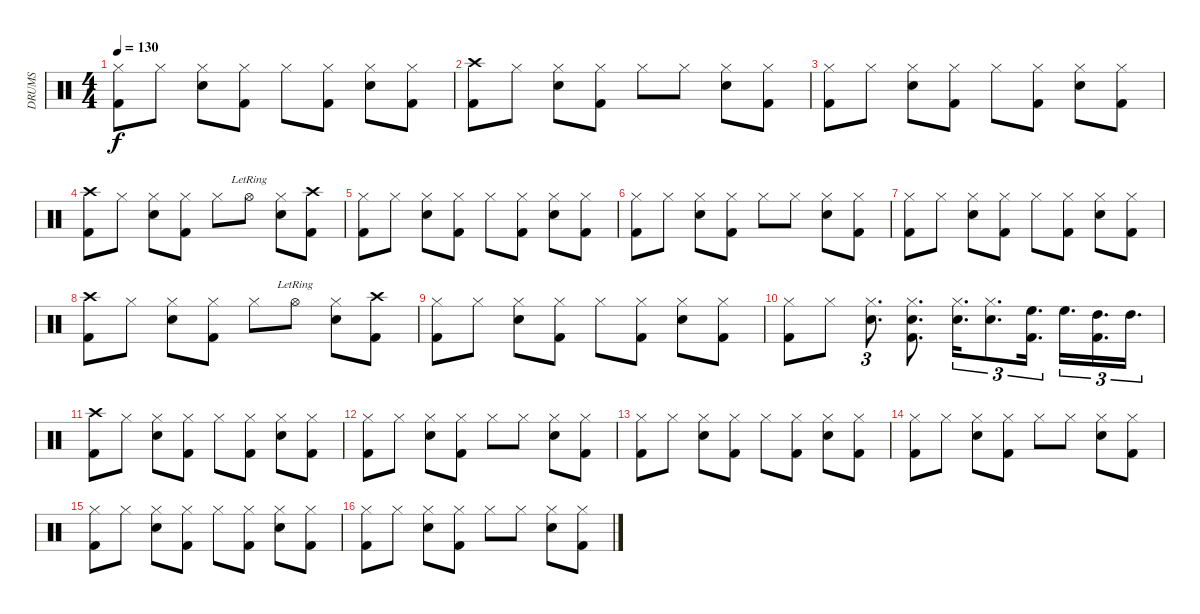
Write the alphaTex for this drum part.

\track ("DRUMS" "DRUMS") {instrument percussion}
\staff {score}
\articulation defaults
\ts (4 4)
\tempo 130
\clef neutral
\ks c
("Hi-Hat (closed)" "Kick (hit) 2").8{dy f} "Hi-Hat (closed)".8 ("Hi-Hat (closed)" "Snare (hit) 2").8 ("Hi-Hat (closed)" "Kick (hit) 2").8 "Hi-Hat (closed)".8 ("Hi-Hat (closed)" "Kick (hit) 2").8 ("Hi-Hat (closed)" "Snare (hit) 2").8 ("Hi-Hat (closed)" "Kick (hit) 2").8 |
("Crash high (hit)" "Kick (hit) 2").8 "Hi-Hat (closed)".8 ("Hi-Hat (closed)" "Snare (hit) 2").8 ("Hi-Hat (closed)" "Kick (hit) 2").8 "Hi-Hat (closed)".8 "Hi-Hat (closed)".8 ("Hi-Hat (closed)" "Snare (hit) 2").8 ("Hi-Hat (closed)" "Kick (hit) 2").8 |
("Hi-Hat (closed)" "Kick (hit) 2").8 "Hi-Hat (closed)".8 ("Hi-Hat (closed)" "Snare (hit) 2").8 ("Hi-Hat (closed)" "Kick (hit) 2").8 "Hi-Hat (closed)".8 ("Hi-Hat (closed)" "Kick (hit) 2").8 ("Hi-Hat (closed)" "Snare (hit) 2").8 ("Hi-Hat (closed)" "Kick (hit) 2").8 |
("Crash high (hit)" "Kick (hit) 2").8 "Hi-Hat (closed)".8 ("Hi-Hat (closed)" "Snare (hit) 2").8 ("Hi-Hat (closed)" "Kick (hit) 2").8 "Hi-Hat (closed)".8 "Hi-Hat (open)"{lr}.8 ("Hi-Hat (closed)" "Snare (hit) 2").8 ("Crash high (hit)" "Kick (hit) 2").8 |
("Hi-Hat (closed)" "Kick (hit) 2").8 "Hi-Hat (closed)".8 ("Hi-Hat (closed)" "Snare (hit) 2").8 ("Hi-Hat (closed)" "Kick (hit) 2").8 "Hi-Hat (closed)".8 ("Hi-Hat (closed)" "Kick (hit) 2").8 ("Hi-Hat (closed)" "Snare (hit) 2").8 ("Hi-Hat (closed)" "Kick (hit) 2").8 |
("Hi-Hat (closed)" "Kick (hit) 2").8 "Hi-Hat (closed)".8 ("Hi-Hat (closed)" "Snare (hit) 2").8 ("Hi-Hat (closed)" "Kick (hit) 2").8 "Hi-Hat (closed)".8 "Hi-Hat (closed)".8 ("Hi-Hat (closed)" "Snare (hit) 2").8 ("Hi-Hat (closed)" "Kick (hit) 2").8 |
("Hi-Hat (closed)" "Kick (hit) 2").8 "Hi-Hat (closed)".8 ("Hi-Hat (closed)" "Snare (hit) 2").8 ("Hi-Hat (closed)" "Kick (hit) 2").8 "Hi-Hat (closed)".8 ("Hi-Hat (closed)" "Kick (hit) 2").8 ("Hi-Hat (closed)" "Snare (hit) 2").8 ("Hi-Hat (closed)" "Kick (hit) 2").8 |
("Crash high (hit)" "Kick (hit) 2").8 "Hi-Hat (closed)".8 ("Hi-Hat (closed)" "Snare (hit) 2").8 ("Hi-Hat (closed)" "Kick (hit) 2").8 "Hi-Hat (closed)".8 "Hi-Hat (open)"{lr}.8 ("Hi-Hat (closed)" "Snare (hit) 2").8 ("Crash high (hit)" "Kick (hit) 2").8 |
("Hi-Hat (closed)" "Kick (hit) 2").8 "Hi-Hat (closed)".8 ("Hi-Hat (closed)" "Snare (hit) 2").8 ("Hi-Hat (closed)" "Kick (hit) 2").8 "Hi-Hat (closed)".8 ("Hi-Hat (closed)" "Kick (hit) 2").8 ("Hi-Hat (closed)" "Snare (hit) 2").8 ("Hi-Hat (closed)" "Kick (hit) 2").8 |
("Hi-Hat (closed)" "Kick (hit) 2").8 "Hi-Hat (closed)".8 ("Hi-Hat (closed)" "Snare (hit) 2").8{d tu (3 2)} ("Hi-Hat (closed)" "Snare (hit) 2" "Kick (hit) 2").8{d} ("Hi-Hat (closed)" "Snare (hit) 2").16{d tu (3 2)} ("Hi-Hat (closed)" "Snare (hit) 2").8{d tu (3 2)} ("High Floor Tom (hit)" "Kick (hit) 2").16{d tu (3 2) balance 0} "High Floor Tom (hit)".16{d tu (3 2)} ("High Tom (hit)" "Kick (hit) 2").16{d tu (3 2) balance 16} "High Tom (hit)".16{d tu (3 2)} |
("Crash high (hit)" "Kick (hit) 2").8{balance 8} "Hi-Hat (closed)".8 ("Hi-Hat (closed)" "Snare (hit) 2").8 ("Hi-Hat (closed)" "Kick (hit) 2").8 "Hi-Hat (closed)".8 ("Hi-Hat (closed)" "Kick (hit) 2").8 ("Hi-Hat (closed)" "Snare (hit) 2").8 ("Hi-Hat (closed)" "Kick (hit) 2").8 |
("Hi-Hat (closed)" "Kick (hit) 2").8 "Hi-Hat (closed)".8 ("Hi-Hat (closed)" "Snare (hit) 2").8 ("Hi-Hat (closed)" "Kick (hit) 2").8 "Hi-Hat (closed)".8 "Hi-Hat (closed)".8 ("Hi-Hat (closed)" "Snare (hit) 2").8 ("Hi-Hat (closed)" "Kick (hit) 2").8 |
("Hi-Hat (closed)" "Kick (hit) 2").8 "Hi-Hat (closed)".8 ("Hi-Hat (closed)" "Snare (hit) 2").8 ("Hi-Hat (closed)" "Kick (hit) 2").8 "Hi-Hat (closed)".8 ("Hi-Hat (closed)" "Kick (hit) 2").8 ("Hi-Hat (closed)" "Snare (hit) 2").8 ("Hi-Hat (closed)" "Kick (hit) 2").8 |
("Hi-Hat (closed)" "Kick (hit) 2").8 "Hi-Hat (closed)".8 ("Hi-Hat (closed)" "Snare (hit) 2").8 ("Hi-Hat (closed)" "Kick (hit) 2").8 "Hi-Hat (closed)".8 "Hi-Hat (closed)".8 ("Hi-Hat (closed)" "Snare (hit) 2").8 ("Hi-Hat (closed)" "Kick (hit) 2").8 |
("Hi-Hat (closed)" "Kick (hit) 2").8 "Hi-Hat (closed)".8 ("Hi-Hat (closed)" "Snare (hit) 2").8 ("Hi-Hat (closed)" "Kick (hit) 2").8 "Hi-Hat (closed)".8 ("Hi-Hat (closed)" "Kick (hit) 2").8 ("Hi-Hat (closed)" "Snare (hit) 2").8 ("Hi-Hat (closed)" "Kick (hit) 2").8 |
("Hi-Hat (closed)" "Kick (hit) 2").8 "Hi-Hat (closed)".8 ("Hi-Hat (closed)" "Snare (hit) 2").8 ("Hi-Hat (closed)" "Kick (hit) 2").8 "Hi-Hat (closed)".8 "Hi-Hat (closed)".8 ("Hi-Hat (closed)" "Snare (hit) 2").8 ("Hi-Hat (closed)" "Kick (hit) 2").8
